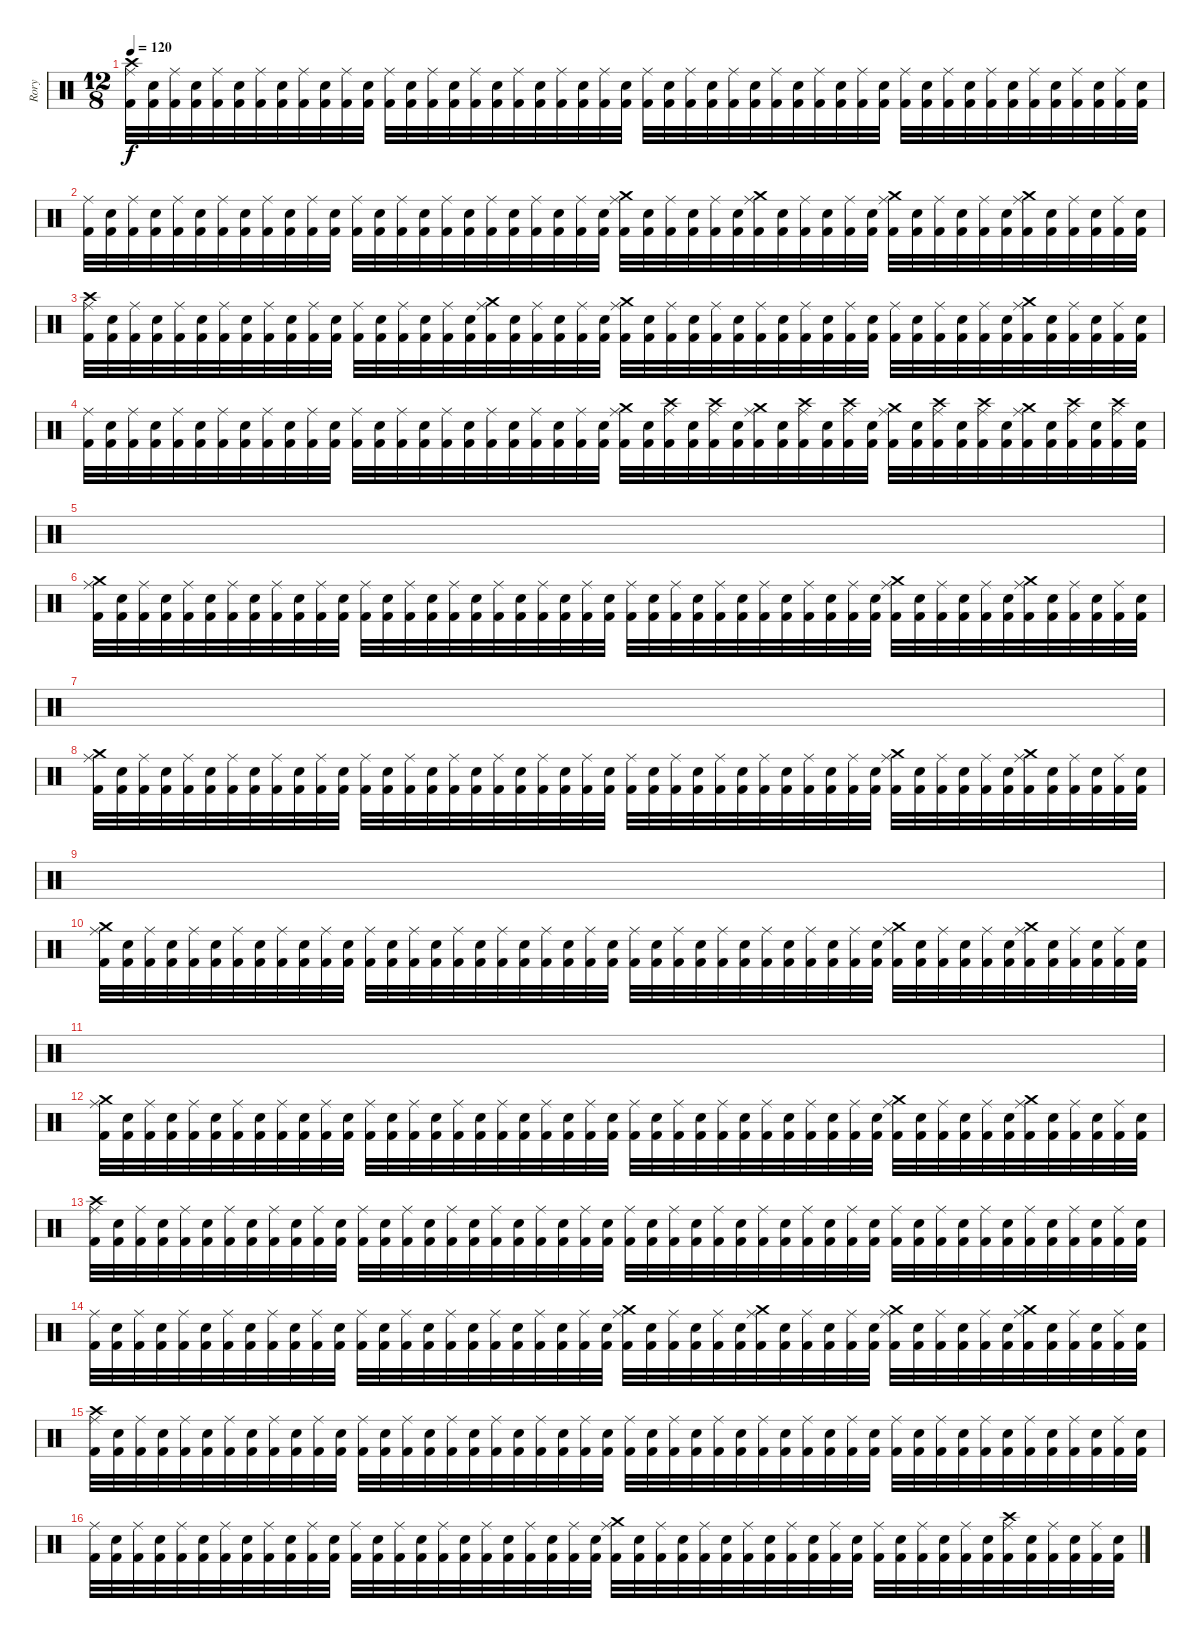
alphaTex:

\track ("Rory" "Rory") {instrument percussion}
\staff {score}
\articulation defaults
\ts (12 8)
\tempo 120
\clef neutral
\ks c
("Kick (hit) 2" "Crash high (hit)" "Ride (middle)").32{dy f} ("Kick (hit) 2" "Electric Snare (hit)").32 ("Kick (hit) 2" "Ride (middle)").32 ("Kick (hit) 2" "Electric Snare (hit)").32 ("Kick (hit) 2" "Ride (middle)").32 ("Kick (hit) 2" "Electric Snare (hit)").32 ("Kick (hit) 2" "Ride (middle)").32 ("Kick (hit) 2" "Electric Snare (hit)").32 ("Kick (hit) 2" "Ride (middle)").32 ("Kick (hit) 2" "Electric Snare (hit)").32 ("Kick (hit) 2" "Ride (middle)").32 ("Kick (hit) 2" "Electric Snare (hit)").32 ("Kick (hit) 2" "Ride (middle)").32 ("Kick (hit) 2" "Electric Snare (hit)").32 ("Kick (hit) 2" "Ride (middle)").32 ("Kick (hit) 2" "Electric Snare (hit)").32 ("Kick (hit) 2" "Ride (middle)").32 ("Kick (hit) 2" "Electric Snare (hit)").32 ("Kick (hit) 2" "Ride (middle)").32 ("Kick (hit) 2" "Electric Snare (hit)").32 ("Kick (hit) 2" "Ride (middle)").32 ("Kick (hit) 2" "Electric Snare (hit)").32 ("Kick (hit) 2" "Ride (middle)").32 ("Kick (hit) 2" "Electric Snare (hit)").32 ("Kick (hit) 2" "Ride (middle)").32 ("Kick (hit) 2" "Electric Snare (hit)").32 ("Kick (hit) 2" "Ride (middle)").32 ("Kick (hit) 2" "Electric Snare (hit)").32 ("Kick (hit) 2" "Ride (middle)").32 ("Kick (hit) 2" "Electric Snare (hit)").32 ("Kick (hit) 2" "Ride (middle)").32 ("Kick (hit) 2" "Electric Snare (hit)").32 ("Kick (hit) 2" "Ride (middle)").32 ("Kick (hit) 2" "Electric Snare (hit)").32 ("Kick (hit) 2" "Ride (middle)").32 ("Kick (hit) 2" "Electric Snare (hit)").32 ("Kick (hit) 2" "Ride (middle)").32 ("Kick (hit) 2" "Electric Snare (hit)").32 ("Kick (hit) 2" "Ride (middle)").32 ("Kick (hit) 2" "Electric Snare (hit)").32 ("Kick (hit) 2" "Ride (middle)").32 ("Kick (hit) 2" "Electric Snare (hit)").32 ("Kick (hit) 2" "Ride (middle)").32 ("Kick (hit) 2" "Electric Snare (hit)").32 ("Kick (hit) 2" "Ride (middle)").32 ("Kick (hit) 2" "Electric Snare (hit)").32 ("Kick (hit) 2" "Ride (middle)").32 ("Kick (hit) 2" "Electric Snare (hit)").32 |
("Kick (hit) 2" "Ride (middle)").32 ("Kick (hit) 2" "Electric Snare (hit)").32 ("Kick (hit) 2" "Ride (middle)").32 ("Kick (hit) 2" "Electric Snare (hit)").32 ("Kick (hit) 2" "Ride (middle)").32 ("Kick (hit) 2" "Electric Snare (hit)").32 ("Kick (hit) 2" "Ride (middle)").32 ("Kick (hit) 2" "Electric Snare (hit)").32 ("Kick (hit) 2" "Ride (middle)").32 ("Kick (hit) 2" "Electric Snare (hit)").32 ("Kick (hit) 2" "Ride (middle)").32 ("Kick (hit) 2" "Electric Snare (hit)").32 ("Kick (hit) 2" "Ride (middle)").32 ("Kick (hit) 2" "Electric Snare (hit)").32 ("Kick (hit) 2" "Ride (middle)").32 ("Kick (hit) 2" "Electric Snare (hit)").32 ("Kick (hit) 2" "Ride (middle)").32 ("Kick (hit) 2" "Electric Snare (hit)").32 ("Kick (hit) 2" "Ride (middle)").32 ("Kick (hit) 2" "Electric Snare (hit)").32 ("Kick (hit) 2" "Ride (middle)").32 ("Kick (hit) 2" "Electric Snare (hit)").32 ("Kick (hit) 2" "Ride (middle)").32 ("Kick (hit) 2" "Electric Snare (hit)").32 ("Kick (hit) 2" "Crash medium (hit)" "Ride (middle)").32 ("Kick (hit) 2" "Electric Snare (hit)").32 ("Kick (hit) 2" "Ride (middle)").32 ("Kick (hit) 2" "Electric Snare (hit)").32 ("Kick (hit) 2" "Ride (middle)").32 ("Kick (hit) 2" "Electric Snare (hit)").32 ("Kick (hit) 2" "Crash medium (hit)" "Ride (middle)").32 ("Kick (hit) 2" "Electric Snare (hit)").32 ("Kick (hit) 2" "Ride (middle)").32 ("Kick (hit) 2" "Electric Snare (hit)").32 ("Kick (hit) 2" "Ride (middle)").32 ("Kick (hit) 2" "Electric Snare (hit)").32 ("Kick (hit) 2" "Crash medium (hit)" "Ride (middle)").32 ("Kick (hit) 2" "Electric Snare (hit)").32 ("Kick (hit) 2" "Ride (middle)").32 ("Kick (hit) 2" "Electric Snare (hit)").32 ("Kick (hit) 2" "Ride (middle)").32 ("Kick (hit) 2" "Electric Snare (hit)").32 ("Kick (hit) 2" "Crash medium (hit)" "Ride (middle)").32 ("Kick (hit) 2" "Electric Snare (hit)").32 ("Kick (hit) 2" "Ride (middle)").32 ("Kick (hit) 2" "Electric Snare (hit)").32 ("Kick (hit) 2" "Ride (middle)").32 ("Kick (hit) 2" "Electric Snare (hit)").32 |
("Kick (hit) 2" "Crash high (hit)" "Ride (middle)").32 ("Kick (hit) 2" "Electric Snare (hit)").32 ("Kick (hit) 2" "Ride (middle)").32 ("Kick (hit) 2" "Electric Snare (hit)").32 ("Kick (hit) 2" "Ride (middle)").32 ("Kick (hit) 2" "Electric Snare (hit)").32 ("Kick (hit) 2" "Ride (middle)").32 ("Kick (hit) 2" "Electric Snare (hit)").32 ("Kick (hit) 2" "Ride (middle)").32 ("Kick (hit) 2" "Electric Snare (hit)").32 ("Kick (hit) 2" "Ride (middle)").32 ("Kick (hit) 2" "Electric Snare (hit)").32 ("Kick (hit) 2" "Ride (middle)").32 ("Kick (hit) 2" "Electric Snare (hit)").32 ("Kick (hit) 2" "Ride (middle)").32 ("Kick (hit) 2" "Electric Snare (hit)").32 ("Kick (hit) 2" "Ride (middle)").32 ("Kick (hit) 2" "Electric Snare (hit)").32 ("Kick (hit) 2" "Crash medium (hit)" "Ride (middle)").32 ("Kick (hit) 2" "Electric Snare (hit)").32 ("Kick (hit) 2" "Ride (middle)").32 ("Kick (hit) 2" "Electric Snare (hit)").32 ("Kick (hit) 2" "Ride (middle)").32 ("Kick (hit) 2" "Electric Snare (hit)").32 ("Kick (hit) 2" "Crash medium (hit)" "Ride (middle)").32 ("Kick (hit) 2" "Electric Snare (hit)").32 ("Kick (hit) 2" "Ride (middle)").32 ("Kick (hit) 2" "Electric Snare (hit)").32 ("Kick (hit) 2" "Ride (middle)").32 ("Kick (hit) 2" "Electric Snare (hit)").32 ("Kick (hit) 2" "Ride (middle)").32 ("Kick (hit) 2" "Electric Snare (hit)").32 ("Kick (hit) 2" "Ride (middle)").32 ("Kick (hit) 2" "Electric Snare (hit)").32 ("Kick (hit) 2" "Ride (middle)").32 ("Kick (hit) 2" "Electric Snare (hit)").32 ("Kick (hit) 2" "Ride (middle)").32 ("Kick (hit) 2" "Electric Snare (hit)").32 ("Kick (hit) 2" "Ride (middle)").32 ("Kick (hit) 2" "Electric Snare (hit)").32 ("Kick (hit) 2" "Ride (middle)").32 ("Kick (hit) 2" "Electric Snare (hit)").32 ("Kick (hit) 2" "Crash medium (hit)" "Ride (middle)").32 ("Kick (hit) 2" "Electric Snare (hit)").32 ("Kick (hit) 2" "Ride (middle)").32 ("Kick (hit) 2" "Electric Snare (hit)").32 ("Kick (hit) 2" "Ride (middle)").32 ("Kick (hit) 2" "Electric Snare (hit)").32 |
("Kick (hit) 2" "Ride (middle)").32 ("Kick (hit) 2" "Electric Snare (hit)").32 ("Kick (hit) 2" "Ride (middle)").32 ("Kick (hit) 2" "Electric Snare (hit)").32 ("Kick (hit) 2" "Ride (middle)").32 ("Kick (hit) 2" "Electric Snare (hit)").32 ("Kick (hit) 2" "Ride (middle)").32 ("Kick (hit) 2" "Electric Snare (hit)").32 ("Kick (hit) 2" "Ride (middle)").32 ("Kick (hit) 2" "Electric Snare (hit)").32 ("Kick (hit) 2" "Ride (middle)").32 ("Kick (hit) 2" "Electric Snare (hit)").32 ("Kick (hit) 2" "Ride (middle)").32 ("Kick (hit) 2" "Electric Snare (hit)").32 ("Kick (hit) 2" "Ride (middle)").32 ("Kick (hit) 2" "Electric Snare (hit)").32 ("Kick (hit) 2" "Ride (middle)").32 ("Kick (hit) 2" "Electric Snare (hit)").32 ("Kick (hit) 2" "Ride (middle)").32 ("Kick (hit) 2" "Electric Snare (hit)").32 ("Kick (hit) 2" "Ride (middle)").32 ("Kick (hit) 2" "Electric Snare (hit)").32 ("Kick (hit) 2" "Ride (middle)").32 ("Kick (hit) 2" "Electric Snare (hit)").32 ("Kick (hit) 2" "Crash medium (hit)" "Ride (middle)").32 ("Kick (hit) 2" "Electric Snare (hit)").32 ("Kick (hit) 2" "Crash high (hit)" "Ride (middle)").32 ("Kick (hit) 2" "Electric Snare (hit)").32 ("Kick (hit) 2" "Crash high (hit)" "Ride (middle)").32 ("Kick (hit) 2" "Electric Snare (hit)").32 ("Kick (hit) 2" "Crash medium (hit)" "Ride (middle)").32 ("Kick (hit) 2" "Electric Snare (hit)").32 ("Kick (hit) 2" "Crash high (hit)" "Ride (middle)").32 ("Kick (hit) 2" "Electric Snare (hit)").32 ("Kick (hit) 2" "Crash high (hit)" "Ride (middle)").32 ("Kick (hit) 2" "Electric Snare (hit)").32 ("Kick (hit) 2" "Crash medium (hit)" "Ride (middle)").32 ("Kick (hit) 2" "Electric Snare (hit)").32 ("Kick (hit) 2" "Crash high (hit)" "Ride (middle)").32 ("Kick (hit) 2" "Electric Snare (hit)").32 ("Kick (hit) 2" "Crash high (hit)" "Ride (middle)").32 ("Kick (hit) 2" "Electric Snare (hit)").32 ("Kick (hit) 2" "Crash medium (hit)" "Ride (middle)").32 ("Kick (hit) 2" "Electric Snare (hit)").32 ("Kick (hit) 2" "Crash high (hit)" "Ride (middle)").32 ("Kick (hit) 2" "Electric Snare (hit)").32 ("Kick (hit) 2" "Crash high (hit)" "Ride (middle)").32 ("Kick (hit) 2" "Electric Snare (hit)").32 |
|
("Kick (hit) 2" "Crash medium (hit)" "Ride (middle)").32 ("Kick (hit) 2" "Electric Snare (hit)").32 ("Kick (hit) 2" "Ride (middle)").32 ("Kick (hit) 2" "Electric Snare (hit)").32 ("Kick (hit) 2" "Ride (middle)").32 ("Kick (hit) 2" "Electric Snare (hit)").32 ("Kick (hit) 2" "Ride (middle)").32 ("Kick (hit) 2" "Electric Snare (hit)").32 ("Kick (hit) 2" "Ride (middle)").32 ("Kick (hit) 2" "Electric Snare (hit)").32 ("Kick (hit) 2" "Ride (middle)").32 ("Kick (hit) 2" "Electric Snare (hit)").32 ("Kick (hit) 2" "Ride (middle)").32 ("Kick (hit) 2" "Electric Snare (hit)").32 ("Kick (hit) 2" "Ride (middle)").32 ("Kick (hit) 2" "Electric Snare (hit)").32 ("Kick (hit) 2" "Ride (middle)").32 ("Kick (hit) 2" "Electric Snare (hit)").32 ("Kick (hit) 2" "Ride (middle)").32 ("Kick (hit) 2" "Electric Snare (hit)").32 ("Kick (hit) 2" "Ride (middle)").32 ("Kick (hit) 2" "Electric Snare (hit)").32 ("Kick (hit) 2" "Ride (middle)").32 ("Kick (hit) 2" "Electric Snare (hit)").32 ("Kick (hit) 2" "Ride (middle)").32 ("Kick (hit) 2" "Electric Snare (hit)").32 ("Kick (hit) 2" "Ride (middle)").32 ("Kick (hit) 2" "Electric Snare (hit)").32 ("Kick (hit) 2" "Ride (middle)").32 ("Kick (hit) 2" "Electric Snare (hit)").32 ("Kick (hit) 2" "Ride (middle)").32 ("Kick (hit) 2" "Electric Snare (hit)").32 ("Kick (hit) 2" "Ride (middle)").32 ("Kick (hit) 2" "Electric Snare (hit)").32 ("Kick (hit) 2" "Ride (middle)").32 ("Kick (hit) 2" "Electric Snare (hit)").32 ("Kick (hit) 2" "Crash medium (hit)" "Ride (middle)").32 ("Kick (hit) 2" "Electric Snare (hit)").32 ("Kick (hit) 2" "Ride (middle)").32 ("Kick (hit) 2" "Electric Snare (hit)").32 ("Kick (hit) 2" "Ride (middle)").32 ("Kick (hit) 2" "Electric Snare (hit)").32 ("Kick (hit) 2" "Crash medium (hit)" "Ride (middle)").32 ("Kick (hit) 2" "Electric Snare (hit)").32 ("Kick (hit) 2" "Ride (middle)").32 ("Kick (hit) 2" "Electric Snare (hit)").32 ("Kick (hit) 2" "Ride (middle)").32 ("Kick (hit) 2" "Electric Snare (hit)").32 |
|
("Kick (hit) 2" "Crash medium (hit)" "Ride (middle)").32 ("Kick (hit) 2" "Electric Snare (hit)").32 ("Kick (hit) 2" "Ride (middle)").32 ("Kick (hit) 2" "Electric Snare (hit)").32 ("Kick (hit) 2" "Ride (middle)").32 ("Kick (hit) 2" "Electric Snare (hit)").32 ("Kick (hit) 2" "Ride (middle)").32 ("Kick (hit) 2" "Electric Snare (hit)").32 ("Kick (hit) 2" "Ride (middle)").32 ("Kick (hit) 2" "Electric Snare (hit)").32 ("Kick (hit) 2" "Ride (middle)").32 ("Kick (hit) 2" "Electric Snare (hit)").32 ("Kick (hit) 2" "Ride (middle)").32 ("Kick (hit) 2" "Electric Snare (hit)").32 ("Kick (hit) 2" "Ride (middle)").32 ("Kick (hit) 2" "Electric Snare (hit)").32 ("Kick (hit) 2" "Ride (middle)").32 ("Kick (hit) 2" "Electric Snare (hit)").32 ("Kick (hit) 2" "Ride (middle)").32 ("Kick (hit) 2" "Electric Snare (hit)").32 ("Kick (hit) 2" "Ride (middle)").32 ("Kick (hit) 2" "Electric Snare (hit)").32 ("Kick (hit) 2" "Ride (middle)").32 ("Kick (hit) 2" "Electric Snare (hit)").32 ("Kick (hit) 2" "Ride (middle)").32 ("Kick (hit) 2" "Electric Snare (hit)").32 ("Kick (hit) 2" "Ride (middle)").32 ("Kick (hit) 2" "Electric Snare (hit)").32 ("Kick (hit) 2" "Ride (middle)").32 ("Kick (hit) 2" "Electric Snare (hit)").32 ("Kick (hit) 2" "Ride (middle)").32 ("Kick (hit) 2" "Electric Snare (hit)").32 ("Kick (hit) 2" "Ride (middle)").32 ("Kick (hit) 2" "Electric Snare (hit)").32 ("Kick (hit) 2" "Ride (middle)").32 ("Kick (hit) 2" "Electric Snare (hit)").32 ("Kick (hit) 2" "Crash medium (hit)" "Ride (middle)").32 ("Kick (hit) 2" "Electric Snare (hit)").32 ("Kick (hit) 2" "Ride (middle)").32 ("Kick (hit) 2" "Electric Snare (hit)").32 ("Kick (hit) 2" "Ride (middle)").32 ("Kick (hit) 2" "Electric Snare (hit)").32 ("Kick (hit) 2" "Crash medium (hit)" "Ride (middle)").32 ("Kick (hit) 2" "Electric Snare (hit)").32 ("Kick (hit) 2" "Ride (middle)").32 ("Kick (hit) 2" "Electric Snare (hit)").32 ("Kick (hit) 2" "Ride (middle)").32 ("Kick (hit) 2" "Electric Snare (hit)").32 |
|
("Kick (hit) 2" "Crash medium (hit)" "Ride (middle)").32 ("Kick (hit) 2" "Electric Snare (hit)").32 ("Kick (hit) 2" "Ride (middle)").32 ("Kick (hit) 2" "Electric Snare (hit)").32 ("Kick (hit) 2" "Ride (middle)").32 ("Kick (hit) 2" "Electric Snare (hit)").32 ("Kick (hit) 2" "Ride (middle)").32 ("Kick (hit) 2" "Electric Snare (hit)").32 ("Kick (hit) 2" "Ride (middle)").32 ("Kick (hit) 2" "Electric Snare (hit)").32 ("Kick (hit) 2" "Ride (middle)").32 ("Kick (hit) 2" "Electric Snare (hit)").32 ("Kick (hit) 2" "Ride (middle)").32 ("Kick (hit) 2" "Electric Snare (hit)").32 ("Kick (hit) 2" "Ride (middle)").32 ("Kick (hit) 2" "Electric Snare (hit)").32 ("Kick (hit) 2" "Ride (middle)").32 ("Kick (hit) 2" "Electric Snare (hit)").32 ("Kick (hit) 2" "Ride (middle)").32 ("Kick (hit) 2" "Electric Snare (hit)").32 ("Kick (hit) 2" "Ride (middle)").32 ("Kick (hit) 2" "Electric Snare (hit)").32 ("Kick (hit) 2" "Ride (middle)").32 ("Kick (hit) 2" "Electric Snare (hit)").32 ("Kick (hit) 2" "Ride (middle)").32 ("Kick (hit) 2" "Electric Snare (hit)").32 ("Kick (hit) 2" "Ride (middle)").32 ("Kick (hit) 2" "Electric Snare (hit)").32 ("Kick (hit) 2" "Ride (middle)").32 ("Kick (hit) 2" "Electric Snare (hit)").32 ("Kick (hit) 2" "Ride (middle)").32 ("Kick (hit) 2" "Electric Snare (hit)").32 ("Kick (hit) 2" "Ride (middle)").32 ("Kick (hit) 2" "Electric Snare (hit)").32 ("Kick (hit) 2" "Ride (middle)").32 ("Kick (hit) 2" "Electric Snare (hit)").32 ("Kick (hit) 2" "Crash medium (hit)" "Ride (middle)").32 ("Kick (hit) 2" "Electric Snare (hit)").32 ("Kick (hit) 2" "Ride (middle)").32 ("Kick (hit) 2" "Electric Snare (hit)").32 ("Kick (hit) 2" "Ride (middle)").32 ("Kick (hit) 2" "Electric Snare (hit)").32 ("Kick (hit) 2" "Crash medium (hit)" "Ride (middle)").32 ("Kick (hit) 2" "Electric Snare (hit)").32 ("Kick (hit) 2" "Ride (middle)").32 ("Kick (hit) 2" "Electric Snare (hit)").32 ("Kick (hit) 2" "Ride (middle)").32 ("Kick (hit) 2" "Electric Snare (hit)").32 |
|
("Kick (hit) 2" "Crash medium (hit)" "Ride (middle)").32 ("Kick (hit) 2" "Electric Snare (hit)").32 ("Kick (hit) 2" "Ride (middle)").32 ("Kick (hit) 2" "Electric Snare (hit)").32 ("Kick (hit) 2" "Ride (middle)").32 ("Kick (hit) 2" "Electric Snare (hit)").32 ("Kick (hit) 2" "Ride (middle)").32 ("Kick (hit) 2" "Electric Snare (hit)").32 ("Kick (hit) 2" "Ride (middle)").32 ("Kick (hit) 2" "Electric Snare (hit)").32 ("Kick (hit) 2" "Ride (middle)").32 ("Kick (hit) 2" "Electric Snare (hit)").32 ("Kick (hit) 2" "Ride (middle)").32 ("Kick (hit) 2" "Electric Snare (hit)").32 ("Kick (hit) 2" "Ride (middle)").32 ("Kick (hit) 2" "Electric Snare (hit)").32 ("Kick (hit) 2" "Ride (middle)").32 ("Kick (hit) 2" "Electric Snare (hit)").32 ("Kick (hit) 2" "Ride (middle)").32 ("Kick (hit) 2" "Electric Snare (hit)").32 ("Kick (hit) 2" "Ride (middle)").32 ("Kick (hit) 2" "Electric Snare (hit)").32 ("Kick (hit) 2" "Ride (middle)").32 ("Kick (hit) 2" "Electric Snare (hit)").32 ("Kick (hit) 2" "Ride (middle)").32 ("Kick (hit) 2" "Electric Snare (hit)").32 ("Kick (hit) 2" "Ride (middle)").32 ("Kick (hit) 2" "Electric Snare (hit)").32 ("Kick (hit) 2" "Ride (middle)").32 ("Kick (hit) 2" "Electric Snare (hit)").32 ("Kick (hit) 2" "Ride (middle)").32 ("Kick (hit) 2" "Electric Snare (hit)").32 ("Kick (hit) 2" "Ride (middle)").32 ("Kick (hit) 2" "Electric Snare (hit)").32 ("Kick (hit) 2" "Ride (middle)").32 ("Kick (hit) 2" "Electric Snare (hit)").32 ("Kick (hit) 2" "Crash medium (hit)" "Ride (middle)").32 ("Kick (hit) 2" "Electric Snare (hit)").32 ("Kick (hit) 2" "Ride (middle)").32 ("Kick (hit) 2" "Electric Snare (hit)").32 ("Kick (hit) 2" "Ride (middle)").32 ("Kick (hit) 2" "Electric Snare (hit)").32 ("Kick (hit) 2" "Crash medium (hit)" "Ride (middle)").32 ("Kick (hit) 2" "Electric Snare (hit)").32 ("Kick (hit) 2" "Ride (middle)").32 ("Kick (hit) 2" "Electric Snare (hit)").32 ("Kick (hit) 2" "Ride (middle)").32 ("Kick (hit) 2" "Electric Snare (hit)").32 |
("Kick (hit) 2" "Crash high (hit)" "Ride (middle)").32 ("Kick (hit) 2" "Electric Snare (hit)").32 ("Kick (hit) 2" "Ride (middle)").32 ("Kick (hit) 2" "Electric Snare (hit)").32 ("Kick (hit) 2" "Ride (middle)").32 ("Kick (hit) 2" "Electric Snare (hit)").32 ("Kick (hit) 2" "Ride (middle)").32 ("Kick (hit) 2" "Electric Snare (hit)").32 ("Kick (hit) 2" "Ride (middle)").32 ("Kick (hit) 2" "Electric Snare (hit)").32 ("Kick (hit) 2" "Ride (middle)").32 ("Kick (hit) 2" "Electric Snare (hit)").32 ("Kick (hit) 2" "Ride (middle)").32 ("Kick (hit) 2" "Electric Snare (hit)").32 ("Kick (hit) 2" "Ride (middle)").32 ("Kick (hit) 2" "Electric Snare (hit)").32 ("Kick (hit) 2" "Ride (middle)").32 ("Kick (hit) 2" "Electric Snare (hit)").32 ("Kick (hit) 2" "Ride (middle)").32 ("Kick (hit) 2" "Electric Snare (hit)").32 ("Kick (hit) 2" "Ride (middle)").32 ("Kick (hit) 2" "Electric Snare (hit)").32 ("Kick (hit) 2" "Ride (middle)").32 ("Kick (hit) 2" "Electric Snare (hit)").32 ("Kick (hit) 2" "Ride (middle)").32 ("Kick (hit) 2" "Electric Snare (hit)").32 ("Kick (hit) 2" "Ride (middle)").32 ("Kick (hit) 2" "Electric Snare (hit)").32 ("Kick (hit) 2" "Ride (middle)").32 ("Kick (hit) 2" "Electric Snare (hit)").32 ("Kick (hit) 2" "Ride (middle)").32 ("Kick (hit) 2" "Electric Snare (hit)").32 ("Kick (hit) 2" "Ride (middle)").32 ("Kick (hit) 2" "Electric Snare (hit)").32 ("Kick (hit) 2" "Ride (middle)").32 ("Kick (hit) 2" "Electric Snare (hit)").32 ("Kick (hit) 2" "Ride (middle)").32 ("Kick (hit) 2" "Electric Snare (hit)").32 ("Kick (hit) 2" "Ride (middle)").32 ("Kick (hit) 2" "Electric Snare (hit)").32 ("Kick (hit) 2" "Ride (middle)").32 ("Kick (hit) 2" "Electric Snare (hit)").32 ("Kick (hit) 2" "Ride (middle)").32 ("Kick (hit) 2" "Electric Snare (hit)").32 ("Kick (hit) 2" "Ride (middle)").32 ("Kick (hit) 2" "Electric Snare (hit)").32 ("Kick (hit) 2" "Ride (middle)").32 ("Kick (hit) 2" "Electric Snare (hit)").32 |
("Kick (hit) 2" "Ride (middle)").32 ("Kick (hit) 2" "Electric Snare (hit)").32 ("Kick (hit) 2" "Ride (middle)").32 ("Kick (hit) 2" "Electric Snare (hit)").32 ("Kick (hit) 2" "Ride (middle)").32 ("Kick (hit) 2" "Electric Snare (hit)").32 ("Kick (hit) 2" "Ride (middle)").32 ("Kick (hit) 2" "Electric Snare (hit)").32 ("Kick (hit) 2" "Ride (middle)").32 ("Kick (hit) 2" "Electric Snare (hit)").32 ("Kick (hit) 2" "Ride (middle)").32 ("Kick (hit) 2" "Electric Snare (hit)").32 ("Kick (hit) 2" "Ride (middle)").32 ("Kick (hit) 2" "Electric Snare (hit)").32 ("Kick (hit) 2" "Ride (middle)").32 ("Kick (hit) 2" "Electric Snare (hit)").32 ("Kick (hit) 2" "Ride (middle)").32 ("Kick (hit) 2" "Electric Snare (hit)").32 ("Kick (hit) 2" "Ride (middle)").32 ("Kick (hit) 2" "Electric Snare (hit)").32 ("Kick (hit) 2" "Ride (middle)").32 ("Kick (hit) 2" "Electric Snare (hit)").32 ("Kick (hit) 2" "Ride (middle)").32 ("Kick (hit) 2" "Electric Snare (hit)").32 ("Kick (hit) 2" "Crash medium (hit)" "Ride (middle)").32 ("Kick (hit) 2" "Electric Snare (hit)").32 ("Kick (hit) 2" "Ride (middle)").32 ("Kick (hit) 2" "Electric Snare (hit)").32 ("Kick (hit) 2" "Ride (middle)").32 ("Kick (hit) 2" "Electric Snare (hit)").32 ("Kick (hit) 2" "Crash medium (hit)" "Ride (middle)").32 ("Kick (hit) 2" "Electric Snare (hit)").32 ("Kick (hit) 2" "Ride (middle)").32 ("Kick (hit) 2" "Electric Snare (hit)").32 ("Kick (hit) 2" "Ride (middle)").32 ("Kick (hit) 2" "Electric Snare (hit)").32 ("Kick (hit) 2" "Crash medium (hit)" "Ride (middle)").32 ("Kick (hit) 2" "Electric Snare (hit)").32 ("Kick (hit) 2" "Ride (middle)").32 ("Kick (hit) 2" "Electric Snare (hit)").32 ("Kick (hit) 2" "Ride (middle)").32 ("Kick (hit) 2" "Electric Snare (hit)").32 ("Kick (hit) 2" "Crash medium (hit)" "Ride (middle)").32 ("Kick (hit) 2" "Electric Snare (hit)").32 ("Kick (hit) 2" "Ride (middle)").32 ("Kick (hit) 2" "Electric Snare (hit)").32 ("Kick (hit) 2" "Ride (middle)").32 ("Kick (hit) 2" "Electric Snare (hit)").32 |
("Kick (hit) 2" "Crash high (hit)" "Ride (middle)").32 ("Kick (hit) 2" "Electric Snare (hit)").32 ("Kick (hit) 2" "Ride (middle)").32 ("Kick (hit) 2" "Electric Snare (hit)").32 ("Kick (hit) 2" "Ride (middle)").32 ("Kick (hit) 2" "Electric Snare (hit)").32 ("Kick (hit) 2" "Ride (middle)").32 ("Kick (hit) 2" "Electric Snare (hit)").32 ("Kick (hit) 2" "Ride (middle)").32 ("Kick (hit) 2" "Electric Snare (hit)").32 ("Kick (hit) 2" "Ride (middle)").32 ("Kick (hit) 2" "Electric Snare (hit)").32 ("Kick (hit) 2" "Ride (middle)").32 ("Kick (hit) 2" "Electric Snare (hit)").32 ("Kick (hit) 2" "Ride (middle)").32 ("Kick (hit) 2" "Electric Snare (hit)").32 ("Kick (hit) 2" "Ride (middle)").32 ("Kick (hit) 2" "Electric Snare (hit)").32 ("Kick (hit) 2" "Ride (middle)").32 ("Kick (hit) 2" "Electric Snare (hit)").32 ("Kick (hit) 2" "Ride (middle)").32 ("Kick (hit) 2" "Electric Snare (hit)").32 ("Kick (hit) 2" "Ride (middle)").32 ("Kick (hit) 2" "Electric Snare (hit)").32 ("Kick (hit) 2" "Ride (middle)").32 ("Kick (hit) 2" "Electric Snare (hit)").32 ("Kick (hit) 2" "Ride (middle)").32 ("Kick (hit) 2" "Electric Snare (hit)").32 ("Kick (hit) 2" "Ride (middle)").32 ("Kick (hit) 2" "Electric Snare (hit)").32 ("Kick (hit) 2" "Ride (middle)").32 ("Kick (hit) 2" "Electric Snare (hit)").32 ("Kick (hit) 2" "Ride (middle)").32 ("Kick (hit) 2" "Electric Snare (hit)").32 ("Kick (hit) 2" "Ride (middle)").32 ("Kick (hit) 2" "Electric Snare (hit)").32 ("Kick (hit) 2" "Ride (middle)").32 ("Kick (hit) 2" "Electric Snare (hit)").32 ("Kick (hit) 2" "Ride (middle)").32 ("Kick (hit) 2" "Electric Snare (hit)").32 ("Kick (hit) 2" "Ride (middle)").32 ("Kick (hit) 2" "Electric Snare (hit)").32 ("Kick (hit) 2" "Ride (middle)").32 ("Kick (hit) 2" "Electric Snare (hit)").32 ("Kick (hit) 2" "Ride (middle)").32 ("Kick (hit) 2" "Electric Snare (hit)").32 ("Kick (hit) 2" "Ride (middle)").32 ("Kick (hit) 2" "Electric Snare (hit)").32 |
("Kick (hit) 2" "Ride (middle)").32 ("Kick (hit) 2" "Electric Snare (hit)").32 ("Kick (hit) 2" "Ride (middle)").32 ("Kick (hit) 2" "Electric Snare (hit)").32 ("Kick (hit) 2" "Ride (middle)").32 ("Kick (hit) 2" "Electric Snare (hit)").32 ("Kick (hit) 2" "Ride (middle)").32 ("Kick (hit) 2" "Electric Snare (hit)").32 ("Kick (hit) 2" "Ride (middle)").32 ("Kick (hit) 2" "Electric Snare (hit)").32 ("Kick (hit) 2" "Ride (middle)").32 ("Kick (hit) 2" "Electric Snare (hit)").32 ("Kick (hit) 2" "Ride (middle)").32 ("Kick (hit) 2" "Electric Snare (hit)").32 ("Kick (hit) 2" "Ride (middle)").32 ("Kick (hit) 2" "Electric Snare (hit)").32 ("Kick (hit) 2" "Ride (middle)").32 ("Kick (hit) 2" "Electric Snare (hit)").32 ("Kick (hit) 2" "Ride (middle)").32 ("Kick (hit) 2" "Electric Snare (hit)").32 ("Kick (hit) 2" "Ride (middle)").32 ("Kick (hit) 2" "Electric Snare (hit)").32 ("Kick (hit) 2" "Ride (middle)").32 ("Kick (hit) 2" "Electric Snare (hit)").32 ("Kick (hit) 2" "Crash medium (hit)" "Ride (middle)").32 ("Kick (hit) 2" "Electric Snare (hit)").32 ("Kick (hit) 2" "Ride (middle)").32 ("Kick (hit) 2" "Electric Snare (hit)").32 ("Kick (hit) 2" "Ride (middle)").32 ("Kick (hit) 2" "Electric Snare (hit)").32 ("Kick (hit) 2" "Ride (middle)").32 ("Kick (hit) 2" "Electric Snare (hit)").32 ("Kick (hit) 2" "Ride (middle)").32 ("Kick (hit) 2" "Electric Snare (hit)").32 ("Kick (hit) 2" "Ride (middle)").32 ("Kick (hit) 2" "Electric Snare (hit)").32 ("Kick (hit) 2" "Ride (middle)").32 ("Kick (hit) 2" "Electric Snare (hit)").32 ("Kick (hit) 2" "Ride (middle)").32 ("Kick (hit) 2" "Electric Snare (hit)").32 ("Kick (hit) 2" "Ride (middle)").32 ("Kick (hit) 2" "Electric Snare (hit)").32 ("Kick (hit) 2" "Crash high (hit)" "Ride (middle)").32 ("Kick (hit) 2" "Electric Snare (hit)").32 ("Kick (hit) 2" "Ride (middle)").32 ("Kick (hit) 2" "Electric Snare (hit)").32 ("Kick (hit) 2" "Ride (middle)").32 ("Kick (hit) 2" "Electric Snare (hit)").32
